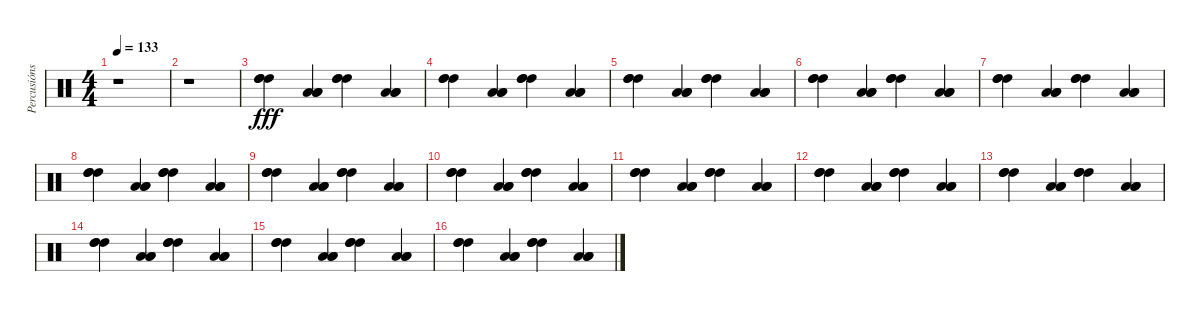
\track ("Percusións" "Percusións") {instrument percussion}
\staff {score}
\articulation defaults
\ts (4 4)
\tempo 133
\clef neutral
\ks c
r.1{dy fff} |
r.1 |
("High Tom (hit)" "High Tom (hit)" "High Tom (hit)").4 ("Low Tom (hit)" "Low Tom (hit)" "Low Tom (hit)").4 ("High Tom (hit)" "High Tom (hit)" "High Tom (hit)").4{volume 7} ("Low Tom (hit)" "Low Tom (hit)" "Low Tom (hit)").4 |
("High Tom (hit)" "High Tom (hit)" "High Tom (hit)").4 ("Low Tom (hit)" "Low Tom (hit)" "Low Tom (hit)").4 ("High Tom (hit)" "High Tom (hit)" "High Tom (hit)").4{volume 7} ("Low Tom (hit)" "Low Tom (hit)" "Low Tom (hit)").4 |
("High Tom (hit)" "High Tom (hit)" "High Tom (hit)").4 ("Low Tom (hit)" "Low Tom (hit)" "Low Tom (hit)").4 ("High Tom (hit)" "High Tom (hit)" "High Tom (hit)").4{volume 7} ("Low Tom (hit)" "Low Tom (hit)" "Low Tom (hit)").4 |
("High Tom (hit)" "High Tom (hit)" "High Tom (hit)").4 ("Low Tom (hit)" "Low Tom (hit)" "Low Tom (hit)").4 ("High Tom (hit)" "High Tom (hit)" "High Tom (hit)").4{volume 7} ("Low Tom (hit)" "Low Tom (hit)" "Low Tom (hit)").4 |
("High Tom (hit)" "High Tom (hit)" "High Tom (hit)").4 ("Low Tom (hit)" "Low Tom (hit)" "Low Tom (hit)").4 ("High Tom (hit)" "High Tom (hit)" "High Tom (hit)").4{volume 7} ("Low Tom (hit)" "Low Tom (hit)" "Low Tom (hit)").4 |
("High Tom (hit)" "High Tom (hit)" "High Tom (hit)").4 ("Low Tom (hit)" "Low Tom (hit)" "Low Tom (hit)").4 ("High Tom (hit)" "High Tom (hit)" "High Tom (hit)").4{volume 7} ("Low Tom (hit)" "Low Tom (hit)" "Low Tom (hit)").4 |
("High Tom (hit)" "High Tom (hit)" "High Tom (hit)").4 ("Low Tom (hit)" "Low Tom (hit)" "Low Tom (hit)").4 ("High Tom (hit)" "High Tom (hit)" "High Tom (hit)").4{volume 7} ("Low Tom (hit)" "Low Tom (hit)" "Low Tom (hit)").4 |
("High Tom (hit)" "High Tom (hit)" "High Tom (hit)").4 ("Low Tom (hit)" "Low Tom (hit)" "Low Tom (hit)").4 ("High Tom (hit)" "High Tom (hit)" "High Tom (hit)").4{volume 7} ("Low Tom (hit)" "Low Tom (hit)" "Low Tom (hit)").4 |
("High Tom (hit)" "High Tom (hit)" "High Tom (hit)").4 ("Low Tom (hit)" "Low Tom (hit)" "Low Tom (hit)").4 ("High Tom (hit)" "High Tom (hit)" "High Tom (hit)").4{volume 7} ("Low Tom (hit)" "Low Tom (hit)" "Low Tom (hit)").4 |
("High Tom (hit)" "High Tom (hit)" "High Tom (hit)").4 ("Low Tom (hit)" "Low Tom (hit)" "Low Tom (hit)").4 ("High Tom (hit)" "High Tom (hit)" "High Tom (hit)").4{volume 7} ("Low Tom (hit)" "Low Tom (hit)" "Low Tom (hit)").4 |
("High Tom (hit)" "High Tom (hit)" "High Tom (hit)").4 ("Low Tom (hit)" "Low Tom (hit)" "Low Tom (hit)").4 ("High Tom (hit)" "High Tom (hit)" "High Tom (hit)").4{volume 7} ("Low Tom (hit)" "Low Tom (hit)" "Low Tom (hit)").4 |
("High Tom (hit)" "High Tom (hit)" "High Tom (hit)").4 ("Low Tom (hit)" "Low Tom (hit)" "Low Tom (hit)").4 ("High Tom (hit)" "High Tom (hit)" "High Tom (hit)").4{volume 7} ("Low Tom (hit)" "Low Tom (hit)" "Low Tom (hit)").4 |
("High Tom (hit)" "High Tom (hit)" "High Tom (hit)").4 ("Low Tom (hit)" "Low Tom (hit)" "Low Tom (hit)").4 ("High Tom (hit)" "High Tom (hit)" "High Tom (hit)").4{volume 7} ("Low Tom (hit)" "Low Tom (hit)" "Low Tom (hit)").4 |
("High Tom (hit)" "High Tom (hit)" "High Tom (hit)").4 ("Low Tom (hit)" "Low Tom (hit)" "Low Tom (hit)").4 ("High Tom (hit)" "High Tom (hit)" "High Tom (hit)").4{volume 7} ("Low Tom (hit)" "Low Tom (hit)" "Low Tom (hit)").4
